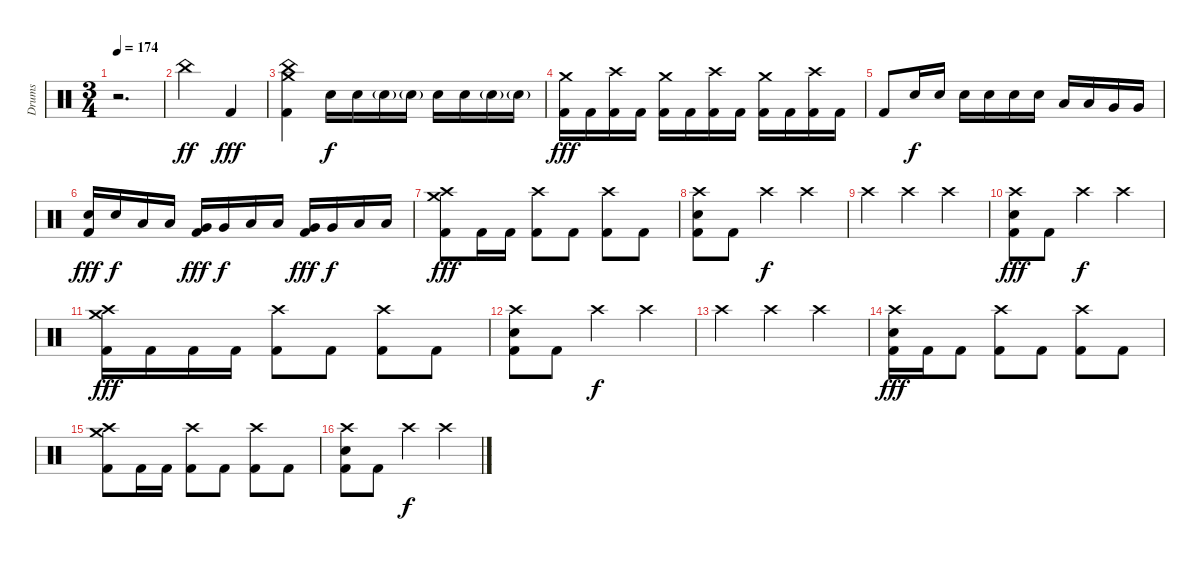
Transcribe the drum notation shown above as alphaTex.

\track ("Drums" "Drums") {instrument percussion}
\staff {score}
\articulation defaults
\ts (3 4)
\tempo 174
\clef neutral
\ks c
r.2{d dy ff} |
"China (hit)".2 "Kick (hit) 2".4{dy fff} |
("Crash medium (hit)" "China (hit)" "Kick (hit) 2").4 "Snare (hit) 2".16{dy f} "Snare (hit) 2".16 "Snare (hit) 2"{g}.16 "Snare (hit) 2"{g}.16 "Snare (hit) 2".16 "Snare (hit) 2".16 "Snare (hit) 2"{g}.16 "Snare (hit) 2"{g}.16 |
("Crash medium (hit)" "Kick (hit) 2").16{dy fff} "Kick (hit) 2".16 ("Crash high (hit)" "Kick (hit) 2").16 "Kick (hit) 2".16 ("Crash medium (hit)" "Kick (hit) 2").16 "Kick (hit) 2".16 ("Crash high (hit)" "Kick (hit) 2").16 "Kick (hit) 2".16 ("Crash medium (hit)" "Kick (hit) 2").16 "Kick (hit) 2".16 ("Crash high (hit)" "Kick (hit) 2").16 "Kick (hit) 2".16 |
"Kick (hit) 2".8 "Snare (hit) 2".16{dy f} "Snare (hit) 2".16 "Snare (hit) 2".16 "Snare (hit) 2".16 "Snare (hit) 2".16 "Snare (hit) 2".16 "Low Tom (hit)".16 "Low Tom (hit)".16 "Very Low Tom (hit)".16 "Very Low Tom (hit)".16 |
("Snare (hit) 2" "Kick (hit) 2").16{dy fff} "Snare (hit) 2".16{dy f} "Low Tom (hit)".16 "Low Tom (hit)".16 ("Very Low Tom (hit)" "Kick (hit) 2").16{dy fff} "Very Low Tom (hit)".16{dy f} "Low Tom (hit)".16 "Low Tom (hit)".16 ("Very Low Tom (hit)" "Kick (hit) 2").16{dy fff} "Very Low Tom (hit)".16{dy f} "Low Floor Tom (hit)".16 "Low Floor Tom (hit)".16 |
("Crash medium (hit)" "Crash high (hit)" "Kick (hit) 2").8{dy fff} "Kick (hit) 2".16 "Kick (hit) 2".16 ("Crash high (hit)" "Kick (hit) 2").8 "Kick (hit) 2".8 ("Crash high (hit)" "Kick (hit) 2").8 "Kick (hit) 2".8 |
("Crash high (hit)" "Snare (hit) 2" "Kick (hit) 2").8 "Kick (hit) 2".8 "Crash high (hit)".4{dy f} "Crash high (hit)".4 |
"Crash high (hit)".4 "Crash high (hit)".4 "Crash high (hit)".4 |
("Crash high (hit)" "Snare (hit) 2" "Kick (hit) 2").8{dy fff} "Kick (hit) 2".8 "Crash high (hit)".4{dy f} "Crash high (hit)".4 |
("Crash medium (hit)" "Crash high (hit)" "Kick (hit) 2").16{dy fff} "Kick (hit) 2".16 "Kick (hit) 2".16 "Kick (hit) 2".16 ("Crash high (hit)" "Kick (hit) 2").8 "Kick (hit) 2".8 ("Crash high (hit)" "Kick (hit) 2").8 "Kick (hit) 2".8 |
("Crash high (hit)" "Snare (hit) 2" "Kick (hit) 2").8 "Kick (hit) 2".8 "Crash high (hit)".4{dy f} "Crash high (hit)".4 |
"Crash high (hit)".4 "Crash high (hit)".4 "Crash high (hit)".4 |
("Crash high (hit)" "Snare (hit) 2" "Kick (hit) 2").16{dy fff} "Kick (hit) 2".16 "Kick (hit) 2".8 ("Crash high (hit)" "Kick (hit) 2").8 "Kick (hit) 2".8 ("Crash high (hit)" "Kick (hit) 2").8 "Kick (hit) 2".8 |
("Crash medium (hit)" "Crash high (hit)" "Kick (hit) 2").8 "Kick (hit) 2".16 "Kick (hit) 2".16 ("Crash high (hit)" "Kick (hit) 2").8 "Kick (hit) 2".8 ("Crash high (hit)" "Kick (hit) 2").8 "Kick (hit) 2".8 |
("Crash high (hit)" "Snare (hit) 2" "Kick (hit) 2").8 "Kick (hit) 2".8 "Crash high (hit)".4{dy f} "Crash high (hit)".4
